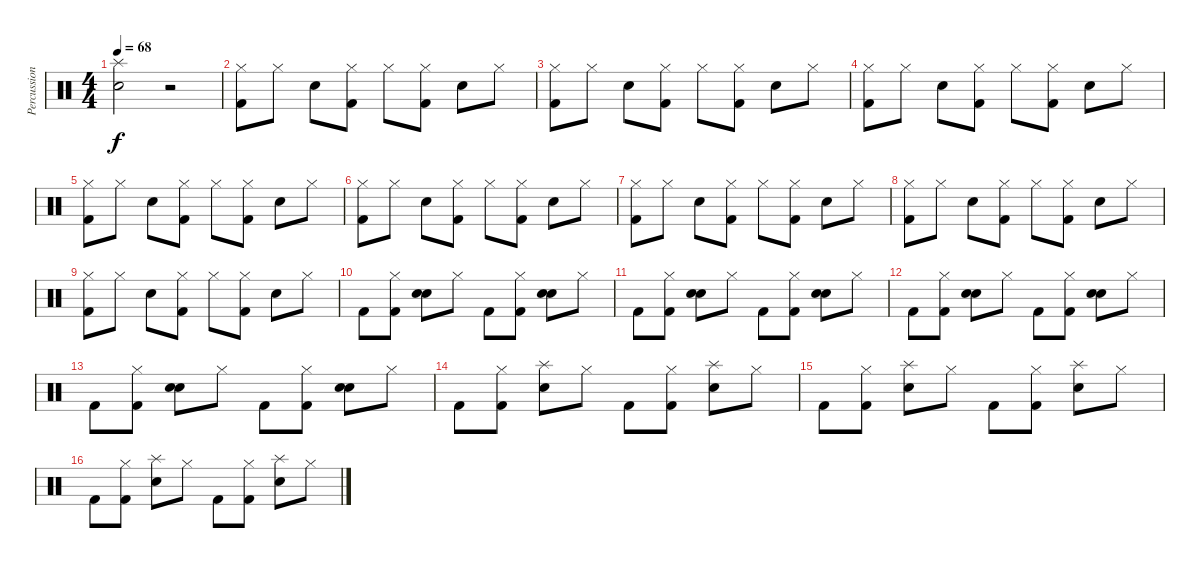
\track ("Percussions" "Percussion") {instrument percussion}
\staff {score}
\articulation defaults
\ts (4 4)
\tempo 68
\clef neutral
\ks c
("Snare (hit) 2" "Splash (hit)").2{dy f} r.2 |
("Hi-Hat (closed)" "Kick (hit) 2").8 "Hi-Hat (closed)".8 "Snare (hit) 2".8 ("Hi-Hat (closed)" "Kick (hit) 2").8 "Hi-Hat (closed)".8 ("Hi-Hat (closed)" "Kick (hit) 2").8 "Snare (hit) 2".8 "Hi-Hat (closed)".8 |
("Hi-Hat (closed)" "Kick (hit) 2").8 "Hi-Hat (closed)".8 "Snare (hit) 2".8 ("Hi-Hat (closed)" "Kick (hit) 2").8 "Hi-Hat (closed)".8 ("Hi-Hat (closed)" "Kick (hit) 2").8 "Snare (hit) 2".8 "Hi-Hat (closed)".8 |
("Hi-Hat (closed)" "Kick (hit) 2").8 "Hi-Hat (closed)".8 "Snare (hit) 2".8 ("Hi-Hat (closed)" "Kick (hit) 2").8 "Hi-Hat (closed)".8 ("Hi-Hat (closed)" "Kick (hit) 2").8 "Snare (hit) 2".8 "Hi-Hat (closed)".8 |
("Hi-Hat (closed)" "Kick (hit) 2").8 "Hi-Hat (closed)".8 "Snare (hit) 2".8 ("Hi-Hat (closed)" "Kick (hit) 2").8 "Hi-Hat (closed)".8 ("Hi-Hat (closed)" "Kick (hit) 2").8 "Snare (hit) 2".8 "Hi-Hat (closed)".8 |
("Hi-Hat (closed)" "Kick (hit) 2").8 "Hi-Hat (closed)".8 "Snare (hit) 2".8 ("Hi-Hat (closed)" "Kick (hit) 2").8 "Hi-Hat (closed)".8 ("Hi-Hat (closed)" "Kick (hit) 2").8 "Snare (hit) 2".8 "Hi-Hat (closed)".8 |
("Hi-Hat (closed)" "Kick (hit) 2").8 "Hi-Hat (closed)".8 "Snare (hit) 2".8 ("Hi-Hat (closed)" "Kick (hit) 2").8 "Hi-Hat (closed)".8 ("Hi-Hat (closed)" "Kick (hit) 2").8 "Snare (hit) 2".8 "Hi-Hat (closed)".8 |
("Hi-Hat (closed)" "Kick (hit) 2").8 "Hi-Hat (closed)".8 "Snare (hit) 2".8 ("Hi-Hat (closed)" "Kick (hit) 2").8 "Hi-Hat (closed)".8 ("Hi-Hat (closed)" "Kick (hit) 2").8 "Snare (hit) 2".8 "Hi-Hat (closed)".8 |
("Hi-Hat (closed)" "Kick (hit) 2").8 "Hi-Hat (closed)".8 "Snare (hit) 2".8 ("Hi-Hat (closed)" "Kick (hit) 2").8 "Hi-Hat (closed)".8 ("Hi-Hat (closed)" "Kick (hit) 2").8 "Snare (hit) 2".8 "Hi-Hat (closed)".8 |
"Kick (hit) 2".8 ("Hi-Hat (closed)" "Kick (hit) 2").8 ("Snare (hit) 2" "Electric Snare (hit)").8 "Hi-Hat (closed)".8 "Kick (hit) 2".8 ("Hi-Hat (closed)" "Kick (hit) 2").8 ("Snare (hit) 2" "Electric Snare (hit)").8 "Hi-Hat (closed)".8 |
"Kick (hit) 2".8 ("Hi-Hat (closed)" "Kick (hit) 2").8 ("Snare (hit) 2" "Electric Snare (hit)").8 "Hi-Hat (closed)".8 "Kick (hit) 2".8 ("Hi-Hat (closed)" "Kick (hit) 2").8 ("Snare (hit) 2" "Electric Snare (hit)").8 "Hi-Hat (closed)".8 |
"Kick (hit) 2".8 ("Hi-Hat (closed)" "Kick (hit) 2").8 ("Snare (hit) 2" "Electric Snare (hit)").8 "Hi-Hat (closed)".8 "Kick (hit) 2".8 ("Hi-Hat (closed)" "Kick (hit) 2").8 ("Snare (hit) 2" "Electric Snare (hit)").8 "Hi-Hat (closed)".8 |
"Kick (hit) 2".8 ("Hi-Hat (closed)" "Kick (hit) 2").8 ("Snare (hit) 2" "Electric Snare (hit)").8 "Hi-Hat (closed)".8 "Kick (hit) 2".8 ("Hi-Hat (closed)" "Kick (hit) 2").8 ("Snare (hit) 2" "Electric Snare (hit)").8 "Hi-Hat (closed)".8 |
"Kick (hit) 2".8 ("Hi-Hat (closed)" "Kick (hit) 2").8 ("Snare (hit) 2" "Splash (hit)").8 "Hi-Hat (closed)".8 "Kick (hit) 2".8 ("Hi-Hat (closed)" "Kick (hit) 2").8 ("Snare (hit) 2" "Splash (hit)").8 "Hi-Hat (closed)".8 |
"Kick (hit) 2".8 ("Hi-Hat (closed)" "Kick (hit) 2").8 ("Snare (hit) 2" "Splash (hit)").8 "Hi-Hat (closed)".8 "Kick (hit) 2".8 ("Hi-Hat (closed)" "Kick (hit) 2").8 ("Snare (hit) 2" "Splash (hit)").8 "Hi-Hat (closed)".8 |
"Kick (hit) 2".8 ("Hi-Hat (closed)" "Kick (hit) 2").8 ("Snare (hit) 2" "Splash (hit)").8 "Hi-Hat (closed)".8 "Kick (hit) 2".8 ("Hi-Hat (closed)" "Kick (hit) 2").8 ("Snare (hit) 2" "Splash (hit)").8 "Hi-Hat (closed)".8
